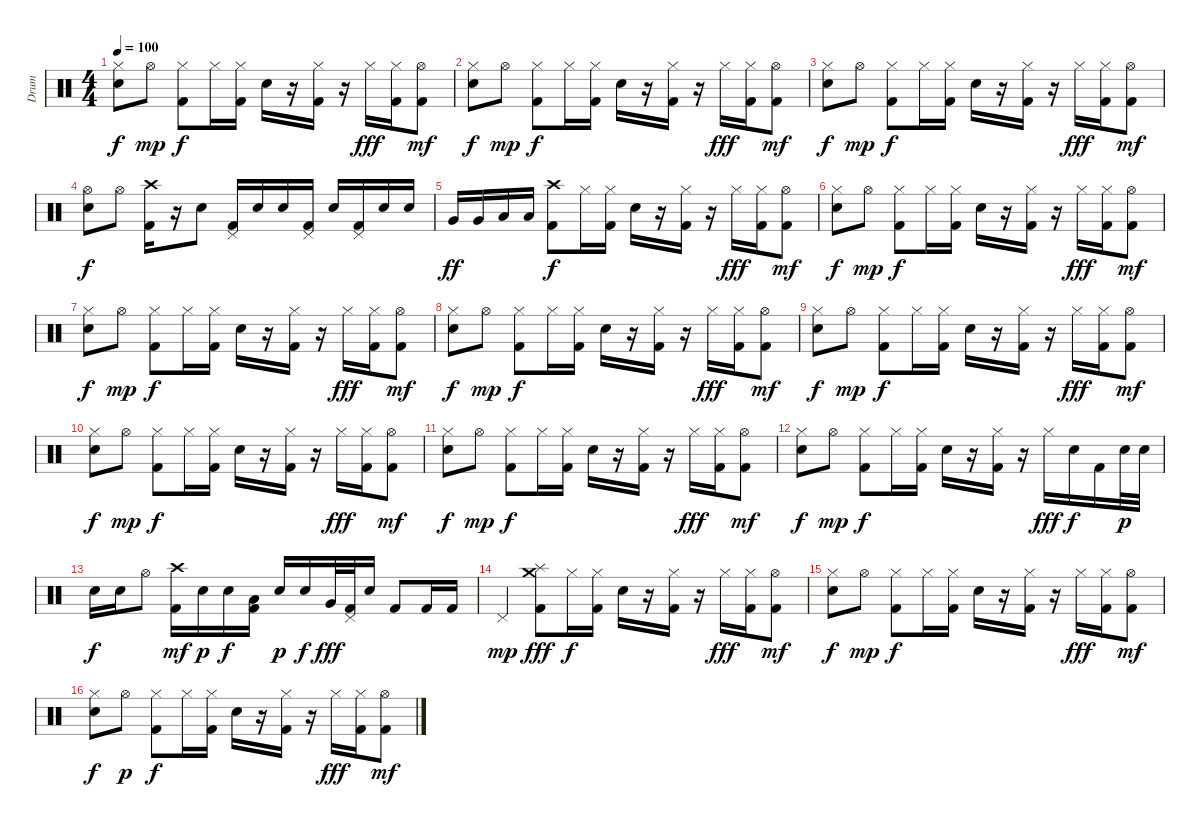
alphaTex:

\track ("Drum" "Drum") {instrument percussion}
\staff {score}
\articulation defaults
\ts (4 4)
\tempo 100
\clef neutral
\ks c
("Snare (hit) 2" "Hi-Hat (closed)").8{dy f} "Hi-Hat (open)".8{dy mp} ("Hi-Hat (closed)" "Kick (hit) 2").8{dy f} "Hi-Hat (closed)".16 ("Hi-Hat (closed)" "Kick (hit) 2").16 "Snare (hit) 2".16 r.16 ("Hi-Hat (closed)" "Kick (hit) 2").16 r.16 "Hi-Hat (closed)".16{dy fff} ("Hi-Hat (closed)" "Kick (hit) 2").16 ("Hi-Hat (open)" "Kick (hit) 2").8{dy mf} |
("Snare (hit) 2" "Hi-Hat (closed)").8{dy f} "Hi-Hat (open)".8{dy mp} ("Hi-Hat (closed)" "Kick (hit) 2").8{dy f} "Hi-Hat (closed)".16 ("Hi-Hat (closed)" "Kick (hit) 2").16 "Snare (hit) 2".16 r.16 ("Hi-Hat (closed)" "Kick (hit) 2").16 r.16 "Hi-Hat (closed)".16{dy fff} ("Hi-Hat (closed)" "Kick (hit) 2").16 ("Hi-Hat (open)" "Kick (hit) 2").8{dy mf} |
("Snare (hit) 2" "Hi-Hat (closed)").8{dy f} "Hi-Hat (open)".8{dy mp} ("Hi-Hat (closed)" "Kick (hit) 2").8{dy f} "Hi-Hat (closed)".16 ("Hi-Hat (closed)" "Kick (hit) 2").16 "Snare (hit) 2".16 r.16 ("Hi-Hat (closed)" "Kick (hit) 2").16 r.16 "Hi-Hat (closed)".16{dy fff} ("Hi-Hat (closed)" "Kick (hit) 2").16 ("Hi-Hat (open)" "Kick (hit) 2").8{dy mf} |
("Snare (hit) 2" "Hi-Hat (open)").8{dy f} "Hi-Hat (open)".8 ("Crash high (hit)" "Kick (hit) 2").16 r.16 "Snare (hit) 2".8 ("Pedal Hi-Hat (hit)" "Kick (hit) 2").16 "Snare (hit) 2".16 "Snare (hit) 2".16 ("Pedal Hi-Hat (hit)" "Kick (hit) 2").16 "Snare (hit) 2".16 ("Pedal Hi-Hat (hit)" "Kick (hit) 2").16 "Snare (hit) 2".16 "Snare (hit) 2".16 |
"Very Low Tom (hit)".16{dy ff} "Very Low Tom (hit)".16 "Low Floor Tom (hit)".16 "Low Floor Tom (hit)".16 ("Crash high (hit)" "Kick (hit) 2").8{dy f} "Hi-Hat (closed)".16 ("Hi-Hat (closed)" "Kick (hit) 2").16 "Snare (hit) 2".16 r.16 ("Hi-Hat (closed)" "Kick (hit) 2").16 r.16 "Hi-Hat (closed)".16{dy fff} ("Hi-Hat (closed)" "Kick (hit) 2").16 ("Hi-Hat (open)" "Kick (hit) 2").8{dy mf} |
("Snare (hit) 2" "Hi-Hat (closed)").8{dy f} "Hi-Hat (open)".8{dy mp} ("Hi-Hat (closed)" "Kick (hit) 2").8{dy f} "Hi-Hat (closed)".16 ("Hi-Hat (closed)" "Kick (hit) 2").16 "Snare (hit) 2".16 r.16 ("Hi-Hat (closed)" "Kick (hit) 2").16 r.16 "Hi-Hat (closed)".16{dy fff} ("Hi-Hat (closed)" "Kick (hit) 2").16 ("Hi-Hat (open)" "Kick (hit) 2").8{dy mf} |
("Snare (hit) 2" "Hi-Hat (closed)").8{dy f} "Hi-Hat (open)".8{dy mp} ("Hi-Hat (closed)" "Kick (hit) 2").8{dy f} "Hi-Hat (closed)".16 ("Hi-Hat (closed)" "Kick (hit) 2").16 "Snare (hit) 2".16 r.16 ("Hi-Hat (closed)" "Kick (hit) 2").16 r.16 "Hi-Hat (closed)".16{dy fff} ("Hi-Hat (closed)" "Kick (hit) 2").16 ("Hi-Hat (open)" "Kick (hit) 2").8{dy mf} |
("Snare (hit) 2" "Hi-Hat (closed)").8{dy f} "Hi-Hat (open)".8{dy mp} ("Hi-Hat (closed)" "Kick (hit) 2").8{dy f} "Hi-Hat (closed)".16 ("Hi-Hat (closed)" "Kick (hit) 2").16 "Snare (hit) 2".16 r.16 ("Hi-Hat (closed)" "Kick (hit) 2").16 r.16 "Hi-Hat (closed)".16{dy fff} ("Hi-Hat (closed)" "Kick (hit) 2").16 ("Hi-Hat (open)" "Kick (hit) 2").8{dy mf} |
("Snare (hit) 2" "Hi-Hat (closed)").8{dy f} "Hi-Hat (open)".8{dy mp} ("Hi-Hat (closed)" "Kick (hit) 2").8{dy f} "Hi-Hat (closed)".16 ("Hi-Hat (closed)" "Kick (hit) 2").16 "Snare (hit) 2".16 r.16 ("Hi-Hat (closed)" "Kick (hit) 2").16 r.16 "Hi-Hat (closed)".16{dy fff} ("Hi-Hat (closed)" "Kick (hit) 2").16 ("Hi-Hat (open)" "Kick (hit) 2").8{dy mf} |
("Snare (hit) 2" "Hi-Hat (closed)").8{dy f} "Hi-Hat (open)".8{dy mp} ("Hi-Hat (closed)" "Kick (hit) 2").8{dy f} "Hi-Hat (closed)".16 ("Hi-Hat (closed)" "Kick (hit) 2").16 "Snare (hit) 2".16 r.16 ("Hi-Hat (closed)" "Kick (hit) 2").16 r.16 "Hi-Hat (closed)".16{dy fff} ("Hi-Hat (closed)" "Kick (hit) 2").16 ("Hi-Hat (open)" "Kick (hit) 2").8{dy mf} |
("Snare (hit) 2" "Hi-Hat (closed)").8{dy f} "Hi-Hat (open)".8{dy mp} ("Hi-Hat (closed)" "Kick (hit) 2").8{dy f} "Hi-Hat (closed)".16 ("Hi-Hat (closed)" "Kick (hit) 2").16 "Snare (hit) 2".16 r.16 ("Hi-Hat (closed)" "Kick (hit) 2").16 r.16 "Hi-Hat (closed)".16{dy fff} ("Hi-Hat (closed)" "Kick (hit) 2").16 ("Hi-Hat (open)" "Kick (hit) 2").8{dy mf} |
("Snare (hit) 2" "Hi-Hat (closed)").8{dy f} "Hi-Hat (open)".8{dy mp} ("Hi-Hat (closed)" "Kick (hit) 2").8{dy f} "Hi-Hat (closed)".16 ("Hi-Hat (closed)" "Kick (hit) 2").16 "Snare (hit) 2".16 r.16 ("Hi-Hat (closed)" "Kick (hit) 2").16 r.16 "Hi-Hat (closed)".16{dy fff} "Snare (hit) 2".16{dy f} "Kick (hit) 2".16 "Snare (hit) 2".32{dy p} "Snare (hit) 2".32 |
"Snare (hit) 2".16{dy f} "Snare (hit) 2".16 "Hi-Hat (open)".8 ("Crash high (hit)" "Kick (hit) 2").16{dy mf} "Snare (hit) 2".16{dy p} "Snare (hit) 2".16{dy f} ("Low Floor Tom (hit)" "Kick (hit) 2").16 "Snare (hit) 2".16{dy p} "Snare (hit) 2".16{dy f} "Very Low Tom (hit)".32{dy fff} ("Pedal Hi-Hat (hit)" "Kick (hit) 2").32 "Snare (hit) 2".16 "Kick (hit) 2".8 "Kick (hit) 2".16 "Kick (hit) 2".16 |
"Pedal Hi-Hat (hit)".4{dy mp} ("Crash medium (hit)" "Splash (hit)" "Kick (hit) 2").8{dy fff} "Hi-Hat (closed)".16{dy f} ("Hi-Hat (closed)" "Kick (hit) 2").16 "Snare (hit) 2".16 r.16 ("Hi-Hat (closed)" "Kick (hit) 2").16 r.16 "Hi-Hat (closed)".16{dy fff} ("Hi-Hat (closed)" "Kick (hit) 2").16 ("Hi-Hat (open)" "Kick (hit) 2").8{dy mf} |
("Snare (hit) 2" "Hi-Hat (closed)").8{dy f} "Hi-Hat (open)".8{dy mp} ("Hi-Hat (closed)" "Kick (hit) 2").8{dy f} "Hi-Hat (closed)".16 ("Hi-Hat (closed)" "Kick (hit) 2").16 "Snare (hit) 2".16 r.16 ("Hi-Hat (closed)" "Kick (hit) 2").16 r.16 "Hi-Hat (closed)".16{dy fff} ("Hi-Hat (closed)" "Kick (hit) 2").16 ("Hi-Hat (open)" "Kick (hit) 2").8{dy mf} |
("Snare (hit) 2" "Hi-Hat (closed)").8{dy f} "Hi-Hat (open)".8{dy p} ("Hi-Hat (closed)" "Kick (hit) 2").8{dy f} "Hi-Hat (closed)".16 ("Hi-Hat (closed)" "Kick (hit) 2").16 "Snare (hit) 2".16 r.16 ("Hi-Hat (closed)" "Kick (hit) 2").16 r.16 "Hi-Hat (closed)".16{dy fff} ("Hi-Hat (closed)" "Kick (hit) 2").16 ("Hi-Hat (open)" "Kick (hit) 2").8{dy mf}
